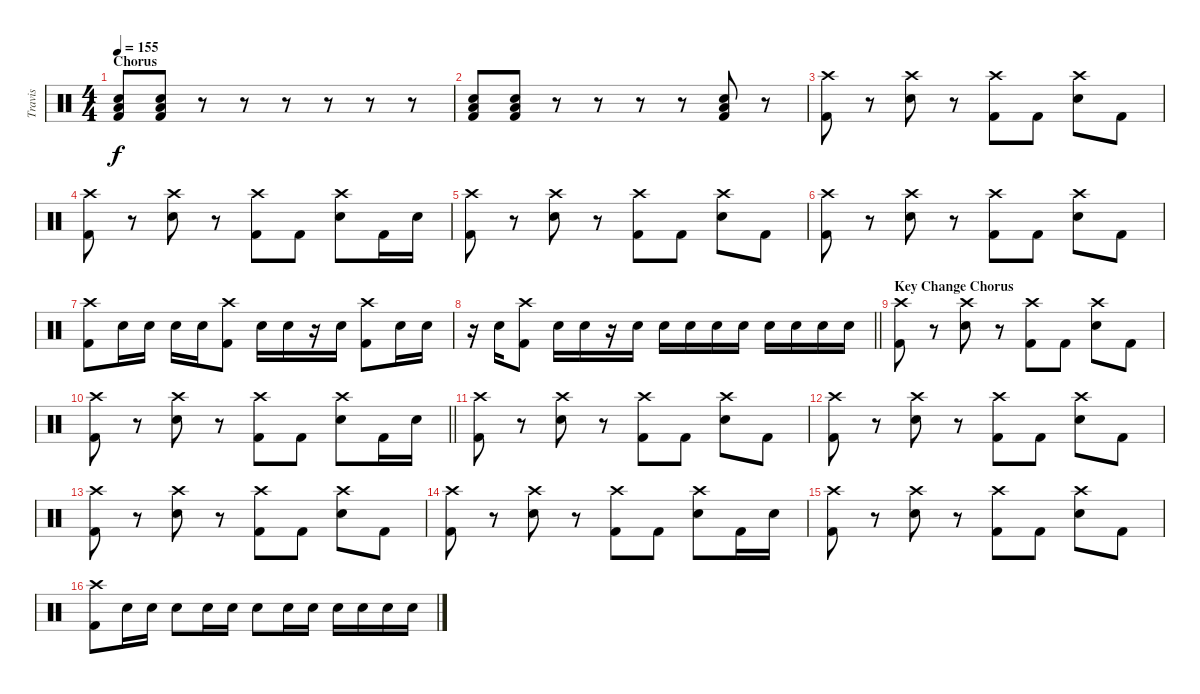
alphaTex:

\track ("Travis" "Travis") {instrument percussion}
\staff {score}
\articulation defaults
\ts (4 4)
\section ("" "Chorus")
\tempo 155
\clef neutral
\ks c
("Low Floor Tom (hit)" "Electric Snare (hit)" "Kick (hit) 2").8{dy f} ("Low Floor Tom (hit)" "Electric Snare (hit)" "Kick (hit) 2").8 r.8 r.8 r.8 r.8 r.8 r.8 |
("Low Floor Tom (hit)" "Electric Snare (hit)" "Kick (hit) 2").8 ("Low Floor Tom (hit)" "Electric Snare (hit)" "Kick (hit) 2").8 r.8 r.8 r.8 r.8 ("Low Floor Tom (hit)" "Electric Snare (hit)" "Kick (hit) 2").8 r.8 |
("Crash high (hit)" "Kick (hit) 2").8 r.8 ("Crash high (hit)" "Electric Snare (hit)").8 r.8 ("Crash high (hit)" "Kick (hit) 2").8 "Kick (hit) 2".8 ("Crash high (hit)" "Electric Snare (hit)").8 "Kick (hit) 2".8 |
("Crash high (hit)" "Kick (hit) 2").8 r.8 ("Crash high (hit)" "Electric Snare (hit)").8 r.8 ("Crash high (hit)" "Kick (hit) 2").8 "Kick (hit) 2".8 ("Crash high (hit)" "Electric Snare (hit)").8 "Kick (hit) 2".16 "Electric Snare (hit)".16 |
("Crash high (hit)" "Kick (hit) 2").8 r.8 ("Crash high (hit)" "Electric Snare (hit)").8 r.8 ("Crash high (hit)" "Kick (hit) 2").8 "Kick (hit) 2".8 ("Crash high (hit)" "Electric Snare (hit)").8 "Kick (hit) 2".8 |
("Crash high (hit)" "Kick (hit) 2").8 r.8 ("Crash high (hit)" "Electric Snare (hit)").8 r.8 ("Crash high (hit)" "Kick (hit) 2").8 "Kick (hit) 2".8 ("Crash high (hit)" "Electric Snare (hit)").8 "Kick (hit) 2".8 |
("Crash high (hit)" "Kick (hit) 2").8 "Electric Snare (hit)".16 "Electric Snare (hit)".16 "Electric Snare (hit)".16 "Electric Snare (hit)".16 ("Crash high (hit)" "Kick (hit) 2").8 "Electric Snare (hit)".16 "Electric Snare (hit)".16 r.16 "Electric Snare (hit)".16 ("Crash high (hit)" "Kick (hit) 2").8 "Electric Snare (hit)".16 "Electric Snare (hit)".16 |
\barLineRight lightlight
r.16 "Electric Snare (hit)".16 ("Crash high (hit)" "Kick (hit) 2").8 "Electric Snare (hit)".16 "Electric Snare (hit)".16 r.16 "Electric Snare (hit)".16 "Electric Snare (hit)".16 "Electric Snare (hit)".16 "Electric Snare (hit)".16 "Electric Snare (hit)".16 "Electric Snare (hit)".16 "Electric Snare (hit)".16 "Electric Snare (hit)".16 "Electric Snare (hit)".16 |
\section ("" "Key Change Chorus")
("Crash high (hit)" "Kick (hit) 2").8 r.8 ("Crash high (hit)" "Electric Snare (hit)").8 r.8 ("Crash high (hit)" "Kick (hit) 2").8 "Kick (hit) 2".8 ("Crash high (hit)" "Electric Snare (hit)").8 "Kick (hit) 2".8 |
\barLineRight lightlight
("Crash high (hit)" "Kick (hit) 2").8 r.8 ("Crash high (hit)" "Electric Snare (hit)").8 r.8 ("Crash high (hit)" "Kick (hit) 2").8 "Kick (hit) 2".8 ("Crash high (hit)" "Electric Snare (hit)").8 "Kick (hit) 2".16 "Electric Snare (hit)".16 |
("Crash high (hit)" "Kick (hit) 2").8 r.8 ("Crash high (hit)" "Electric Snare (hit)").8 r.8 ("Crash high (hit)" "Kick (hit) 2").8 "Kick (hit) 2".8 ("Crash high (hit)" "Electric Snare (hit)").8 "Kick (hit) 2".8 |
("Crash high (hit)" "Kick (hit) 2").8 r.8 ("Crash high (hit)" "Electric Snare (hit)").8 r.8 ("Crash high (hit)" "Kick (hit) 2").8 "Kick (hit) 2".8 ("Crash high (hit)" "Electric Snare (hit)").8 "Kick (hit) 2".8 |
("Crash high (hit)" "Kick (hit) 2").8 r.8 ("Crash high (hit)" "Electric Snare (hit)").8 r.8 ("Crash high (hit)" "Kick (hit) 2").8 "Kick (hit) 2".8 ("Crash high (hit)" "Electric Snare (hit)").8 "Kick (hit) 2".8 |
("Crash high (hit)" "Kick (hit) 2").8 r.8 ("Crash high (hit)" "Electric Snare (hit)").8 r.8 ("Crash high (hit)" "Kick (hit) 2").8 "Kick (hit) 2".8 ("Crash high (hit)" "Electric Snare (hit)").8 "Kick (hit) 2".16 "Electric Snare (hit)".16 |
("Crash high (hit)" "Kick (hit) 2").8 r.8 ("Crash high (hit)" "Electric Snare (hit)").8 r.8 ("Crash high (hit)" "Kick (hit) 2").8 "Kick (hit) 2".8 ("Crash high (hit)" "Electric Snare (hit)").8 "Kick (hit) 2".8 |
("Crash high (hit)" "Kick (hit) 2").8 "Electric Snare (hit)".16 "Electric Snare (hit)".16 "Electric Snare (hit)".8 "Electric Snare (hit)".16 "Electric Snare (hit)".16 "Electric Snare (hit)".8 "Electric Snare (hit)".16 "Electric Snare (hit)".16 "Electric Snare (hit)".16 "Electric Snare (hit)".16 "Electric Snare (hit)".16 "Electric Snare (hit)".16
